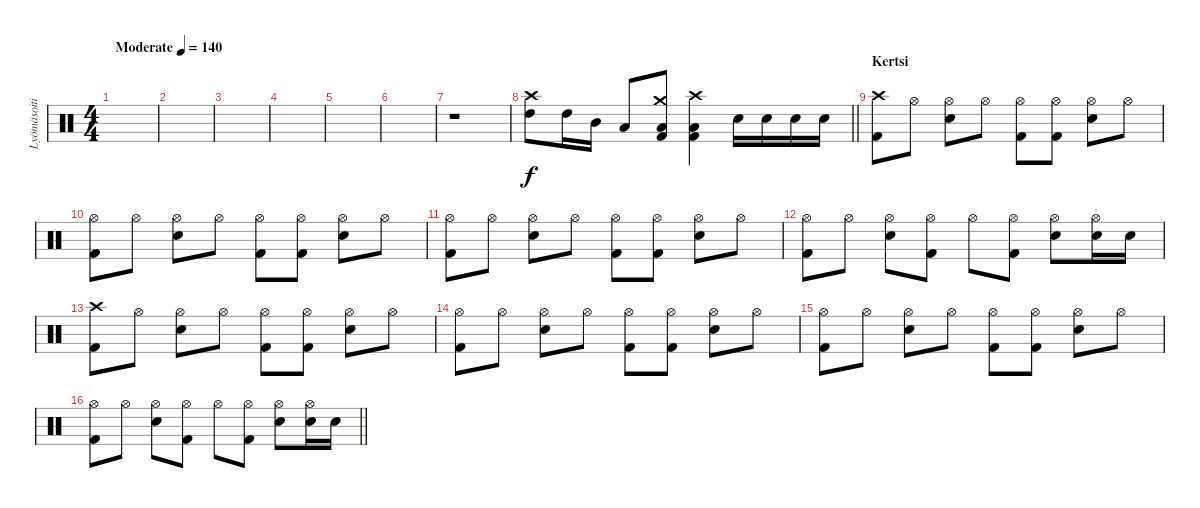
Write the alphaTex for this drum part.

\track ("Lyömäsoitin" "Lyömäsoiti") {instrument percussion}
\staff {score}
\articulation defaults
\ts (4 4)
\tempo (140 "Moderate")
\clef neutral
\ks c
|
|
|
|
|
|
r.1 |
\barLineRight lightlight
("Crash high (hit)" "High Tom (hit)").8 "High Tom (hit)".16 "Mid Tom (hit)".16 "Low Tom (hit)".8 ("Crash medium (hit)" "Low Tom (hit)" "Kick (hit) 2").8 ("Crash high (hit)" "Low Tom (hit)" "Kick (hit) 2").4 "Snare (hit) 2".16 "Snare (hit) 2".16 "Snare (hit) 2".16 "Snare (hit) 2".16 |
\section ("" "Kertsi")
("Crash high (hit)" "Kick (hit) 2").8 "Hi-Hat (open)".8 ("Hi-Hat (open)" "Snare (hit) 2").8 "Hi-Hat (open)".8 ("Hi-Hat (open)" "Kick (hit) 2").8 ("Hi-Hat (open)" "Kick (hit) 2").8 ("Hi-Hat (open)" "Snare (hit) 2").8 "Hi-Hat (open)".8 |
("Hi-Hat (open)" "Kick (hit) 2").8 "Hi-Hat (open)".8 ("Hi-Hat (open)" "Snare (hit) 2").8 "Hi-Hat (open)".8 ("Hi-Hat (open)" "Kick (hit) 2").8 ("Hi-Hat (open)" "Kick (hit) 2").8 ("Hi-Hat (open)" "Snare (hit) 2").8 "Hi-Hat (open)".8 |
("Hi-Hat (open)" "Kick (hit) 2").8 "Hi-Hat (open)".8 ("Hi-Hat (open)" "Snare (hit) 2").8 "Hi-Hat (open)".8 ("Hi-Hat (open)" "Kick (hit) 2").8 ("Hi-Hat (open)" "Kick (hit) 2").8 ("Hi-Hat (open)" "Snare (hit) 2").8 "Hi-Hat (open)".8 |
("Hi-Hat (open)" "Kick (hit) 2").8 "Hi-Hat (open)".8 ("Hi-Hat (open)" "Snare (hit) 2").8 ("Hi-Hat (open)" "Kick (hit) 2").8 "Hi-Hat (open)".8 ("Hi-Hat (open)" "Kick (hit) 2").8 ("Hi-Hat (open)" "Snare (hit) 2").8 ("Hi-Hat (open)" "Snare (hit) 2").16 "Snare (hit) 2".16 |
("Crash high (hit)" "Kick (hit) 2").8 "Hi-Hat (open)".8 ("Hi-Hat (open)" "Snare (hit) 2").8 "Hi-Hat (open)".8 ("Hi-Hat (open)" "Kick (hit) 2").8 ("Hi-Hat (open)" "Kick (hit) 2").8 ("Hi-Hat (open)" "Snare (hit) 2").8 "Hi-Hat (open)".8 |
("Hi-Hat (open)" "Kick (hit) 2").8 "Hi-Hat (open)".8 ("Hi-Hat (open)" "Snare (hit) 2").8 "Hi-Hat (open)".8 ("Hi-Hat (open)" "Kick (hit) 2").8 ("Hi-Hat (open)" "Kick (hit) 2").8 ("Hi-Hat (open)" "Snare (hit) 2").8 "Hi-Hat (open)".8 |
("Hi-Hat (open)" "Kick (hit) 2").8 "Hi-Hat (open)".8 ("Hi-Hat (open)" "Snare (hit) 2").8 "Hi-Hat (open)".8 ("Hi-Hat (open)" "Kick (hit) 2").8 ("Hi-Hat (open)" "Kick (hit) 2").8 ("Hi-Hat (open)" "Snare (hit) 2").8 "Hi-Hat (open)".8 |
\barLineRight lightlight
("Hi-Hat (open)" "Kick (hit) 2").8 "Hi-Hat (open)".8 ("Hi-Hat (open)" "Snare (hit) 2").8 ("Hi-Hat (open)" "Kick (hit) 2").8 "Hi-Hat (open)".8 ("Hi-Hat (open)" "Kick (hit) 2").8 ("Hi-Hat (open)" "Snare (hit) 2").8 ("Hi-Hat (open)" "Snare (hit) 2").16 "Snare (hit) 2".16
